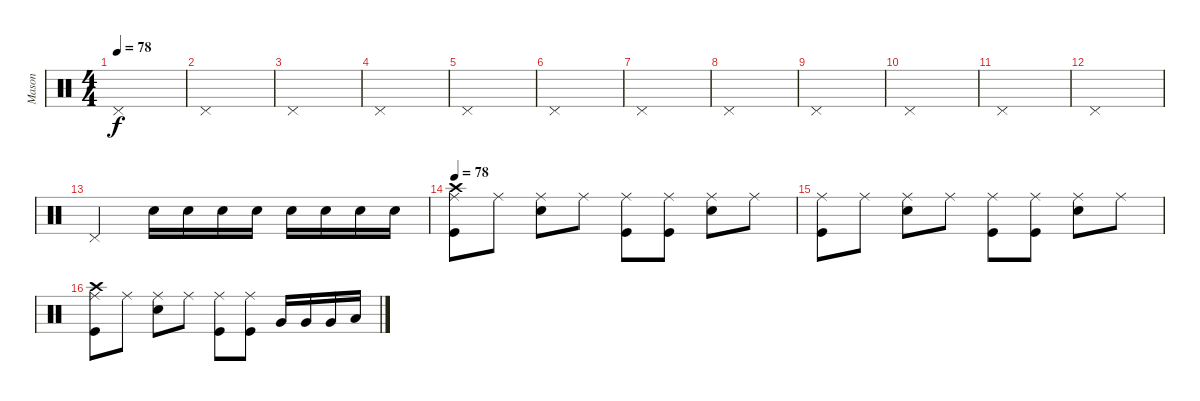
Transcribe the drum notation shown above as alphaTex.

\track ("Mason" "Mason") {instrument percussion}
\staff {score}
\articulation defaults
\ts (4 4)
\tempo 78
\clef neutral
\ks c "Pedal Hi-Hat (hit)".1{dy f}
|
"Pedal Hi-Hat (hit)".1 |
"Pedal Hi-Hat (hit)".1 |
"Pedal Hi-Hat (hit)".1 |
"Pedal Hi-Hat (hit)".1 |
"Pedal Hi-Hat (hit)".1 |
"Pedal Hi-Hat (hit)".1 |
"Pedal Hi-Hat (hit)".1 |
"Pedal Hi-Hat (hit)".1 |
"Pedal Hi-Hat (hit)".1 |
"Pedal Hi-Hat (hit)".1 |
"Pedal Hi-Hat (hit)".1 |
"Pedal Hi-Hat (hit)".2 "Electric Snare (hit)".16 "Electric Snare (hit)".16 "Electric Snare (hit)".16 "Electric Snare (hit)".16 "Electric Snare (hit)".16 "Electric Snare (hit)".16 "Electric Snare (hit)".16 "Electric Snare (hit)".16 |
\tempo 78
("Crash high (hit)" "Ride (middle)" "Kick (hit)").8 "Ride (middle)".8 ("Ride (middle)" "Electric Snare (hit)").8 "Ride (middle)".8 ("Ride (middle)" "Kick (hit)").8 ("Ride (middle)" "Kick (hit)").8 ("Ride (middle)" "Electric Snare (hit)").8 "Ride (middle)".8 |
("Ride (middle)" "Kick (hit)").8 "Ride (middle)".8 ("Ride (middle)" "Electric Snare (hit)").8 "Ride (middle)".8 ("Ride (middle)" "Kick (hit)").8 ("Ride (middle)" "Kick (hit)").8 ("Ride (middle)" "Electric Snare (hit)").8 "Ride (middle)".8 |
("Crash high (hit)" "Ride (middle)" "Kick (hit)").8 "Ride (middle)".8 ("Ride (middle)" "Electric Snare (hit)").8 "Ride (middle)".8 ("Ride (middle)" "Kick (hit)").8 ("Ride (middle)" "Kick (hit)").8 "Very Low Tom (hit)".16 "Very Low Tom (hit)".16 "Very Low Tom (hit)".16 "Low Floor Tom (hit)".16
